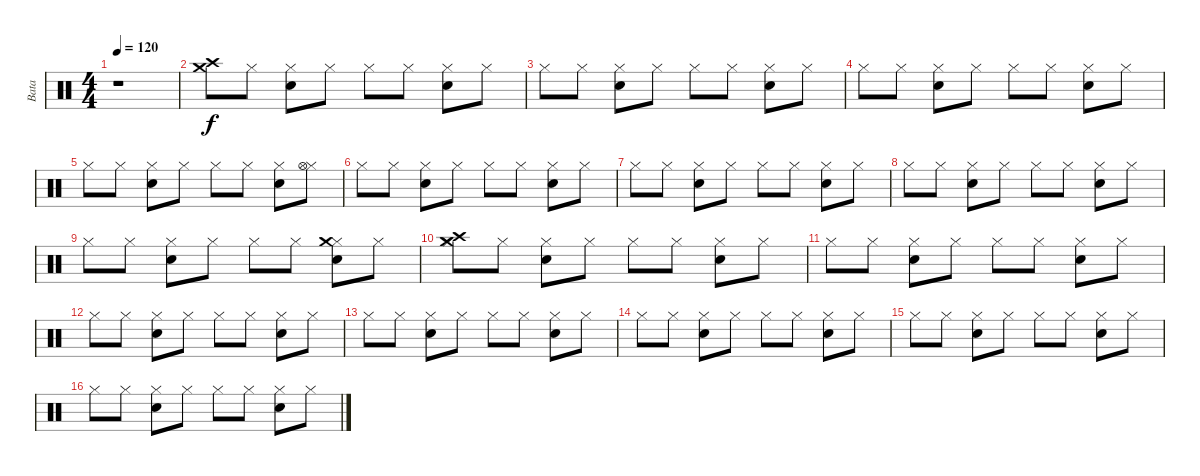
\track ("Bata" "Bata") {instrument percussion}
\staff {score}
\articulation defaults
\ts (4 4)
\tempo 120
\clef neutral
\ks c
r.1{dy f} |
("Crash high (hit)" "Crash medium (hit)").8 "Hi-Hat (closed)".8 ("Hi-Hat (closed)" "Electric Snare (hit)").8 "Hi-Hat (closed)".8 "Hi-Hat (closed)".8 "Hi-Hat (closed)".8 ("Hi-Hat (closed)" "Electric Snare (hit)").8 "Hi-Hat (closed)".8 |
"Hi-Hat (closed)".8 "Hi-Hat (closed)".8 ("Hi-Hat (closed)" "Electric Snare (hit)").8 "Hi-Hat (closed)".8 "Hi-Hat (closed)".8 "Hi-Hat (closed)".8 ("Hi-Hat (closed)" "Electric Snare (hit)").8 "Hi-Hat (closed)".8 |
"Hi-Hat (closed)".8 "Hi-Hat (closed)".8 ("Hi-Hat (closed)" "Electric Snare (hit)").8 "Hi-Hat (closed)".8 "Hi-Hat (closed)".8 "Hi-Hat (closed)".8 ("Hi-Hat (closed)" "Electric Snare (hit)").8 "Hi-Hat (closed)".8 |
"Hi-Hat (closed)".8 "Hi-Hat (closed)".8 ("Hi-Hat (closed)" "Electric Snare (hit)").8 "Hi-Hat (closed)".8 "Hi-Hat (closed)".8 "Hi-Hat (closed)".8 ("Hi-Hat (closed)" "Electric Snare (hit)").8 ("Hi-Hat (closed)" "Hi-Hat (open)").8 |
"Hi-Hat (closed)".8 "Hi-Hat (closed)".8 ("Hi-Hat (closed)" "Electric Snare (hit)").8 "Hi-Hat (closed)".8 "Hi-Hat (closed)".8 "Hi-Hat (closed)".8 ("Hi-Hat (closed)" "Electric Snare (hit)").8 "Hi-Hat (closed)".8 |
"Hi-Hat (closed)".8 "Hi-Hat (closed)".8 ("Hi-Hat (closed)" "Electric Snare (hit)").8 "Hi-Hat (closed)".8 "Hi-Hat (closed)".8 "Hi-Hat (closed)".8 ("Hi-Hat (closed)" "Electric Snare (hit)").8 "Hi-Hat (closed)".8 |
"Hi-Hat (closed)".8 "Hi-Hat (closed)".8 ("Hi-Hat (closed)" "Electric Snare (hit)").8 "Hi-Hat (closed)".8 "Hi-Hat (closed)".8 "Hi-Hat (closed)".8 ("Hi-Hat (closed)" "Electric Snare (hit)").8 "Hi-Hat (closed)".8 |
"Hi-Hat (closed)".8 "Hi-Hat (closed)".8 ("Hi-Hat (closed)" "Electric Snare (hit)").8 "Hi-Hat (closed)".8 "Hi-Hat (closed)".8 "Hi-Hat (closed)".8 ("Hi-Hat (closed)" "Electric Snare (hit)" "Crash medium (hit)").8 "Hi-Hat (closed)".8 |
("Hi-Hat (closed)" "Crash high (hit)" "Crash medium (hit)").8 "Hi-Hat (closed)".8 ("Hi-Hat (closed)" "Electric Snare (hit)").8 "Hi-Hat (closed)".8 "Hi-Hat (closed)".8 "Hi-Hat (closed)".8 ("Hi-Hat (closed)" "Electric Snare (hit)").8 "Hi-Hat (closed)".8 |
"Hi-Hat (closed)".8 "Hi-Hat (closed)".8 ("Hi-Hat (closed)" "Electric Snare (hit)").8 "Hi-Hat (closed)".8 "Hi-Hat (closed)".8 "Hi-Hat (closed)".8 ("Hi-Hat (closed)" "Electric Snare (hit)").8 "Hi-Hat (closed)".8 |
"Hi-Hat (closed)".8 "Hi-Hat (closed)".8 ("Hi-Hat (closed)" "Electric Snare (hit)").8 "Hi-Hat (closed)".8 "Hi-Hat (closed)".8 "Hi-Hat (closed)".8 ("Hi-Hat (closed)" "Electric Snare (hit)").8 "Hi-Hat (closed)".8 |
"Hi-Hat (closed)".8 "Hi-Hat (closed)".8 ("Hi-Hat (closed)" "Electric Snare (hit)").8 "Hi-Hat (closed)".8 "Hi-Hat (closed)".8 "Hi-Hat (closed)".8 ("Hi-Hat (closed)" "Electric Snare (hit)").8 "Hi-Hat (closed)".8 |
"Hi-Hat (closed)".8 "Hi-Hat (closed)".8 ("Hi-Hat (closed)" "Electric Snare (hit)").8 "Hi-Hat (closed)".8 "Hi-Hat (closed)".8 "Hi-Hat (closed)".8 ("Hi-Hat (closed)" "Electric Snare (hit)").8 "Hi-Hat (closed)".8 |
"Hi-Hat (closed)".8 "Hi-Hat (closed)".8 ("Hi-Hat (closed)" "Electric Snare (hit)").8 "Hi-Hat (closed)".8 "Hi-Hat (closed)".8 "Hi-Hat (closed)".8 ("Hi-Hat (closed)" "Electric Snare (hit)").8 "Hi-Hat (closed)".8 |
"Hi-Hat (closed)".8 "Hi-Hat (closed)".8 ("Hi-Hat (closed)" "Electric Snare (hit)").8 "Hi-Hat (closed)".8 "Hi-Hat (closed)".8 "Hi-Hat (closed)".8 ("Hi-Hat (closed)" "Electric Snare (hit)").8 "Hi-Hat (closed)".8
